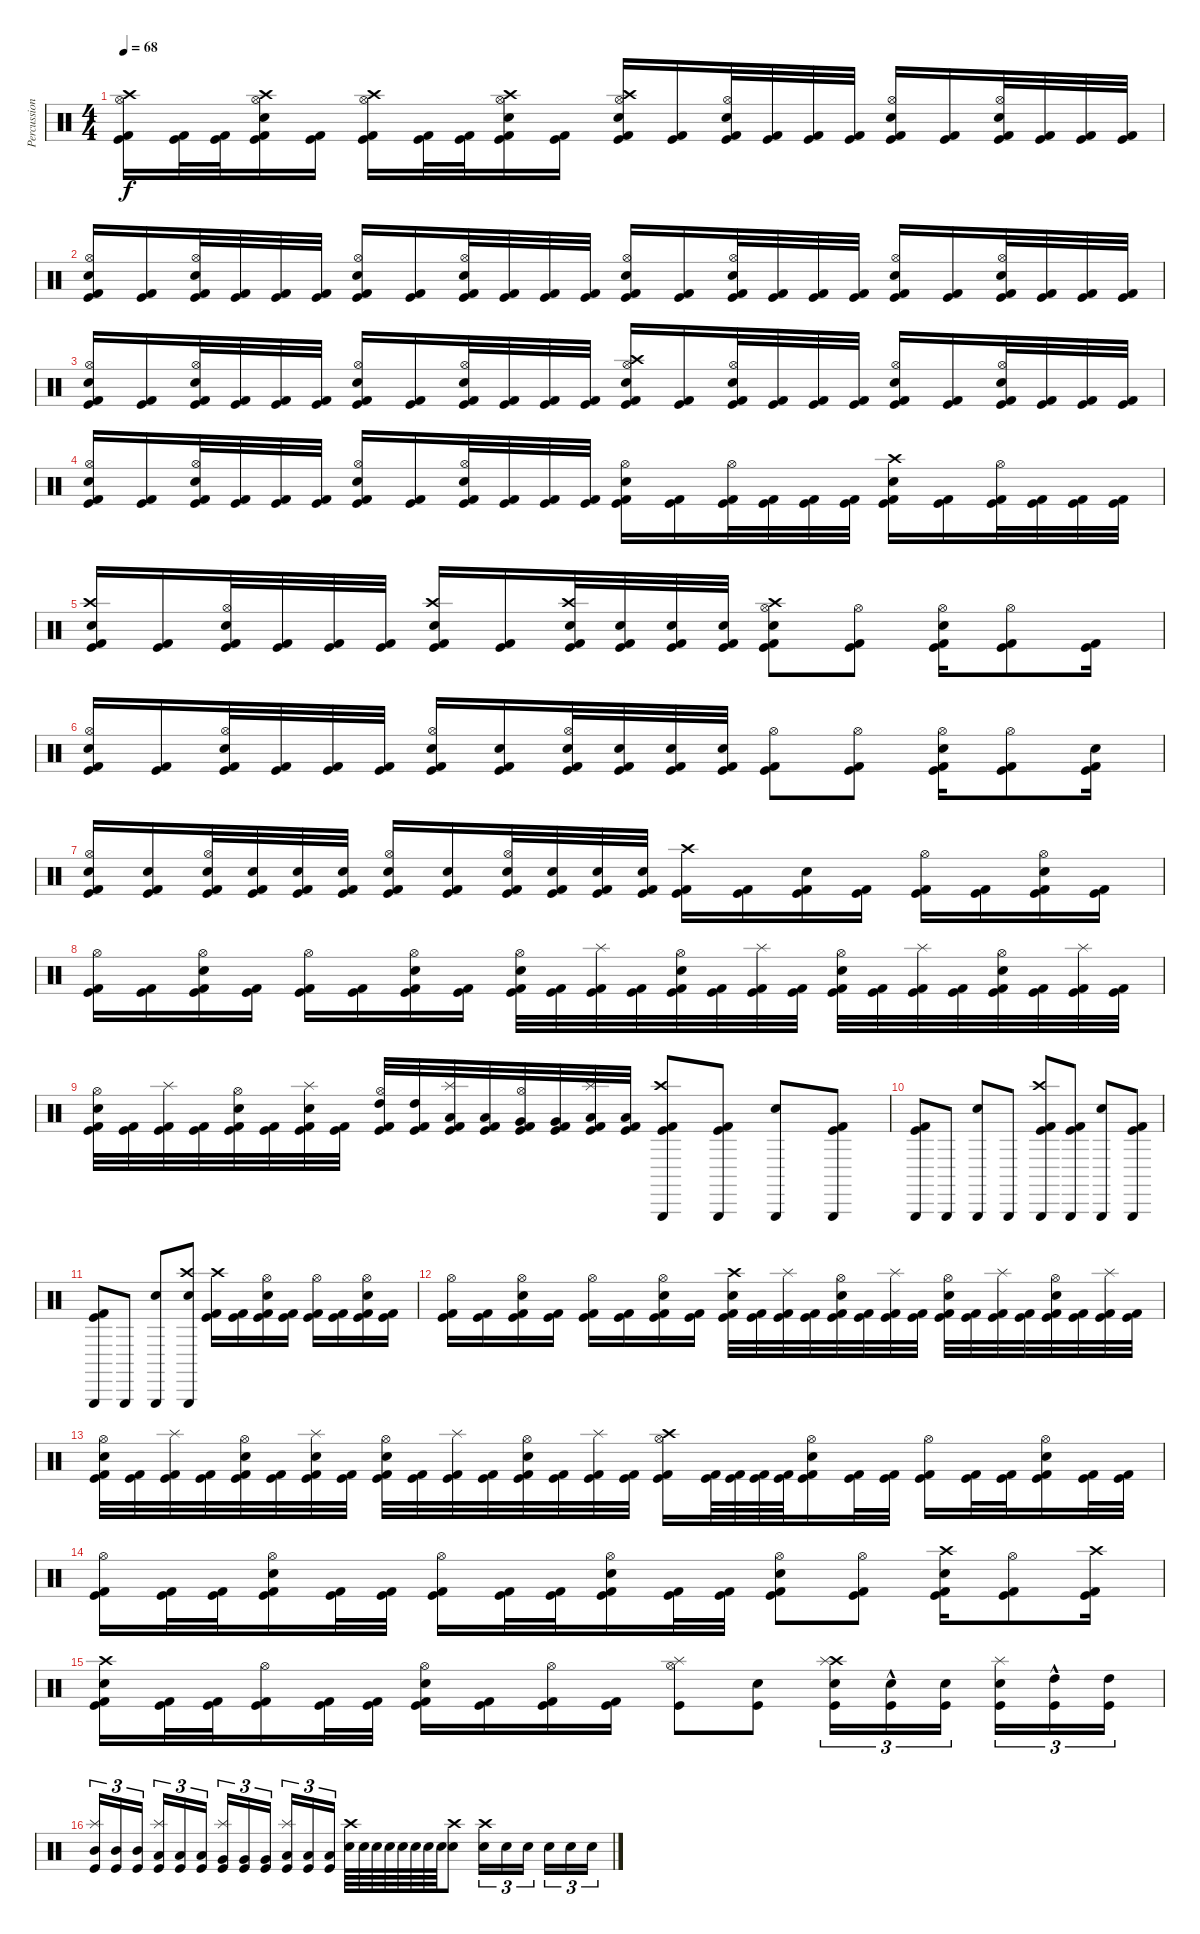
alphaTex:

\track ("Percussion" "Percussion") {instrument percussion}
\staff {score}
\articulation defaults
\ts (4 4)
\tempo 68
\clef neutral
\ks c
("Kick (hit)" "Kick (hit) 2" "Hi-Hat (open)" "Crash high (hit)").16{dy f} ("Kick (hit)" "Kick (hit) 2").32 ("Kick (hit)" "Kick (hit) 2").32 ("Kick (hit)" "Kick (hit) 2" "Snare (hit) 2" "Hi-Hat (open)" "Crash high (hit)").16 ("Kick (hit)" "Kick (hit) 2").16 ("Kick (hit)" "Kick (hit) 2" "Hi-Hat (open)" "Crash high (hit)").16 ("Kick (hit)" "Kick (hit) 2").32 ("Kick (hit)" "Kick (hit) 2").32 ("Kick (hit)" "Kick (hit) 2" "Snare (hit) 2" "Hi-Hat (open)" "Crash high (hit)").16 ("Kick (hit)" "Kick (hit) 2").16 ("Kick (hit)" "Kick (hit) 2" "Snare (hit) 2" "Hi-Hat (open)" "Crash high (hit)").16 ("Kick (hit)" "Kick (hit) 2").16 ("Kick (hit)" "Kick (hit) 2" "Snare (hit) 2" "Hi-Hat (open)").32 ("Kick (hit)" "Kick (hit) 2").32 ("Kick (hit)" "Kick (hit) 2").32 ("Kick (hit)" "Kick (hit) 2").32 ("Kick (hit)" "Kick (hit) 2" "Snare (hit) 2" "Hi-Hat (open)").16 ("Kick (hit)" "Kick (hit) 2").16 ("Kick (hit)" "Kick (hit) 2" "Snare (hit) 2" "Hi-Hat (open)").32 ("Kick (hit)" "Kick (hit) 2").32 ("Kick (hit)" "Kick (hit) 2").32 ("Kick (hit)" "Kick (hit) 2").32 |
("Kick (hit)" "Kick (hit) 2" "Snare (hit) 2" "Hi-Hat (open)").16 ("Kick (hit)" "Kick (hit) 2").16 ("Kick (hit)" "Kick (hit) 2" "Snare (hit) 2" "Hi-Hat (open)").32 ("Kick (hit)" "Kick (hit) 2").32 ("Kick (hit)" "Kick (hit) 2").32 ("Kick (hit)" "Kick (hit) 2").32 ("Kick (hit)" "Kick (hit) 2" "Snare (hit) 2" "Hi-Hat (open)").16 ("Kick (hit)" "Kick (hit) 2").16 ("Kick (hit)" "Kick (hit) 2" "Snare (hit) 2" "Hi-Hat (open)").32 ("Kick (hit)" "Kick (hit) 2").32 ("Kick (hit)" "Kick (hit) 2").32 ("Kick (hit)" "Kick (hit) 2").32 ("Kick (hit)" "Kick (hit) 2" "Snare (hit) 2" "Hi-Hat (open)").16 ("Kick (hit)" "Kick (hit) 2").16 ("Kick (hit)" "Kick (hit) 2" "Snare (hit) 2" "Hi-Hat (open)").32 ("Kick (hit)" "Kick (hit) 2").32 ("Kick (hit)" "Kick (hit) 2").32 ("Kick (hit)" "Kick (hit) 2").32 ("Kick (hit)" "Kick (hit) 2" "Snare (hit) 2" "Hi-Hat (open)").16 ("Kick (hit)" "Kick (hit) 2").16 ("Kick (hit)" "Kick (hit) 2" "Snare (hit) 2" "Hi-Hat (open)").32 ("Kick (hit)" "Kick (hit) 2").32 ("Kick (hit)" "Kick (hit) 2").32 ("Kick (hit)" "Kick (hit) 2").32 |
("Kick (hit)" "Kick (hit) 2" "Snare (hit) 2" "Hi-Hat (open)").16 ("Kick (hit)" "Kick (hit) 2").16 ("Kick (hit)" "Kick (hit) 2" "Snare (hit) 2" "Hi-Hat (open)").32 ("Kick (hit)" "Kick (hit) 2").32 ("Kick (hit)" "Kick (hit) 2").32 ("Kick (hit)" "Kick (hit) 2").32 ("Kick (hit)" "Kick (hit) 2" "Snare (hit) 2" "Hi-Hat (open)").16 ("Kick (hit)" "Kick (hit) 2").16 ("Kick (hit)" "Kick (hit) 2" "Snare (hit) 2" "Hi-Hat (open)").32 ("Kick (hit)" "Kick (hit) 2").32 ("Kick (hit)" "Kick (hit) 2").32 ("Kick (hit)" "Kick (hit) 2").32 ("Kick (hit)" "Kick (hit) 2" "Snare (hit) 2" "Hi-Hat (open)" "Crash high (hit)").16 ("Kick (hit)" "Kick (hit) 2").16 ("Kick (hit)" "Kick (hit) 2" "Snare (hit) 2" "Hi-Hat (open)").32 ("Kick (hit)" "Kick (hit) 2").32 ("Kick (hit)" "Kick (hit) 2").32 ("Kick (hit)" "Kick (hit) 2").32 ("Kick (hit)" "Kick (hit) 2" "Snare (hit) 2" "Hi-Hat (open)").16 ("Kick (hit)" "Kick (hit) 2").16 ("Kick (hit)" "Kick (hit) 2" "Snare (hit) 2" "Hi-Hat (open)").32 ("Kick (hit)" "Kick (hit) 2").32 ("Kick (hit)" "Kick (hit) 2").32 ("Kick (hit)" "Kick (hit) 2").32 |
("Kick (hit)" "Kick (hit) 2" "Snare (hit) 2" "Hi-Hat (open)").16 ("Kick (hit)" "Kick (hit) 2").16 ("Kick (hit)" "Kick (hit) 2" "Snare (hit) 2" "Hi-Hat (open)").32 ("Kick (hit)" "Kick (hit) 2").32 ("Kick (hit)" "Kick (hit) 2").32 ("Kick (hit)" "Kick (hit) 2").32 ("Kick (hit)" "Kick (hit) 2" "Snare (hit) 2" "Hi-Hat (open)").16 ("Kick (hit)" "Kick (hit) 2").16 ("Kick (hit)" "Kick (hit) 2" "Snare (hit) 2" "Hi-Hat (open)").32 ("Kick (hit)" "Kick (hit) 2").32 ("Kick (hit)" "Kick (hit) 2").32 ("Kick (hit)" "Kick (hit) 2").32 ("Kick (hit)" "Kick (hit) 2" "Snare (hit) 2" "Hi-Hat (open)").16 ("Kick (hit)" "Kick (hit) 2").16 ("Kick (hit)" "Kick (hit) 2" "Hi-Hat (open)").32 ("Kick (hit)" "Kick (hit) 2").32 ("Kick (hit)" "Kick (hit) 2").32 ("Kick (hit)" "Kick (hit) 2").32 ("Kick (hit)" "Kick (hit) 2" "Snare (hit) 2" "Crash high (hit)").16 ("Kick (hit)" "Kick (hit) 2").16 ("Kick (hit)" "Kick (hit) 2" "Hi-Hat (open)").32 ("Kick (hit)" "Kick (hit) 2").32 ("Kick (hit)" "Kick (hit) 2").32 ("Kick (hit)" "Kick (hit) 2").32 |
\section ("" "")
("Kick (hit)" "Kick (hit) 2" "Snare (hit) 2" "Crash high (hit)").16 ("Kick (hit)" "Kick (hit) 2").16 ("Kick (hit)" "Kick (hit) 2" "Snare (hit) 2" "Hi-Hat (open)").32 ("Kick (hit)" "Kick (hit) 2").32 ("Kick (hit)" "Kick (hit) 2").32 ("Kick (hit)" "Kick (hit) 2").32 ("Kick (hit)" "Kick (hit) 2" "Snare (hit) 2" "Crash high (hit)").16 ("Kick (hit)" "Kick (hit) 2").16 ("Kick (hit)" "Kick (hit) 2" "Snare (hit) 2" "Crash high (hit)").32 ("Kick (hit)" "Kick (hit) 2" "Snare (hit) 2").32 ("Kick (hit)" "Kick (hit) 2" "Snare (hit) 2").32 ("Kick (hit)" "Kick (hit) 2" "Snare (hit) 2").32 ("Kick (hit)" "Kick (hit) 2" "Snare (hit) 2" "Hi-Hat (open)" "Crash high (hit)").8 ("Kick (hit)" "Kick (hit) 2" "Hi-Hat (open)").8 ("Kick (hit)" "Kick (hit) 2" "Snare (hit) 2" "Hi-Hat (open)").16 ("Kick (hit)" "Kick (hit) 2" "Hi-Hat (open)").8 ("Kick (hit)" "Kick (hit) 2").16 |
("Kick (hit)" "Kick (hit) 2" "Snare (hit) 2" "Hi-Hat (open)").16 ("Kick (hit)" "Kick (hit) 2").16 ("Kick (hit)" "Kick (hit) 2" "Snare (hit) 2" "Hi-Hat (open)").32 ("Kick (hit)" "Kick (hit) 2").32 ("Kick (hit)" "Kick (hit) 2").32 ("Kick (hit)" "Kick (hit) 2").32 ("Kick (hit)" "Kick (hit) 2" "Snare (hit) 2" "Hi-Hat (open)").16 ("Kick (hit)" "Kick (hit) 2" "Snare (hit) 2").16 ("Kick (hit)" "Kick (hit) 2" "Snare (hit) 2" "Hi-Hat (open)").32 ("Kick (hit)" "Kick (hit) 2" "Snare (hit) 2").32 ("Kick (hit)" "Kick (hit) 2" "Snare (hit) 2").32 ("Kick (hit)" "Kick (hit) 2" "Snare (hit) 2").32 ("Kick (hit)" "Kick (hit) 2" "Hi-Hat (open)").8 ("Kick (hit)" "Kick (hit) 2" "Hi-Hat (open)").8 ("Kick (hit)" "Kick (hit) 2" "Snare (hit) 2" "Hi-Hat (open)").16 ("Kick (hit)" "Kick (hit) 2" "Hi-Hat (open)").8 ("Kick (hit)" "Kick (hit) 2" "Snare (hit) 2").16 |
("Kick (hit)" "Kick (hit) 2" "Snare (hit) 2" "Hi-Hat (open)").16 ("Kick (hit)" "Kick (hit) 2" "Snare (hit) 2").16 ("Kick (hit)" "Kick (hit) 2" "Snare (hit) 2" "Hi-Hat (open)").32 ("Kick (hit)" "Kick (hit) 2" "Snare (hit) 2").32 ("Kick (hit)" "Kick (hit) 2" "Snare (hit) 2").32 ("Kick (hit)" "Kick (hit) 2" "Snare (hit) 2").32 ("Kick (hit)" "Kick (hit) 2" "Snare (hit) 2" "Hi-Hat (open)").16 ("Kick (hit)" "Kick (hit) 2" "Snare (hit) 2").16 ("Kick (hit)" "Kick (hit) 2" "Snare (hit) 2" "Hi-Hat (open)").32 ("Kick (hit)" "Kick (hit) 2" "Snare (hit) 2").32 ("Kick (hit)" "Kick (hit) 2" "Snare (hit) 2").32 ("Kick (hit)" "Kick (hit) 2" "Snare (hit) 2").32 ("Kick (hit)" "Kick (hit) 2" "Crash high (hit)").16 ("Kick (hit)" "Kick (hit) 2").16 ("Kick (hit)" "Kick (hit) 2" "Snare (hit) 2").16 ("Kick (hit)" "Kick (hit) 2").16 ("Kick (hit)" "Kick (hit) 2" "Hi-Hat (open)").16 ("Kick (hit)" "Kick (hit) 2").16 ("Kick (hit)" "Kick (hit) 2" "Snare (hit) 2" "Hi-Hat (open)").16 ("Kick (hit)" "Kick (hit) 2").16 |
("Kick (hit)" "Kick (hit) 2" "Hi-Hat (open)").16 ("Kick (hit)" "Kick (hit) 2").16 ("Kick (hit)" "Kick (hit) 2" "Snare (hit) 2" "Hi-Hat (open)").16 ("Kick (hit)" "Kick (hit) 2").16 ("Kick (hit)" "Kick (hit) 2" "Hi-Hat (open)").16 ("Kick (hit)" "Kick (hit) 2").16 ("Kick (hit)" "Kick (hit) 2" "Snare (hit) 2" "Hi-Hat (open)").16 ("Kick (hit)" "Kick (hit) 2").16 ("Kick (hit)" "Kick (hit) 2" "Snare (hit) 2" "Hi-Hat (open)").32 ("Kick (hit)" "Kick (hit) 2").32 ("Kick (hit)" "Kick (hit) 2" "Splash (hit)").32 ("Kick (hit)" "Kick (hit) 2").32 ("Kick (hit)" "Kick (hit) 2" "Snare (hit) 2" "Hi-Hat (open)").32 ("Kick (hit)" "Kick (hit) 2").32 ("Kick (hit)" "Kick (hit) 2" "Splash (hit)").32 ("Kick (hit)" "Kick (hit) 2").32 ("Kick (hit)" "Kick (hit) 2" "Snare (hit) 2" "Hi-Hat (open)").32 ("Kick (hit)" "Kick (hit) 2").32 ("Kick (hit)" "Kick (hit) 2" "Splash (hit)").32 ("Kick (hit)" "Kick (hit) 2").32 ("Kick (hit)" "Kick (hit) 2" "Snare (hit) 2" "Hi-Hat (open)").32 ("Kick (hit)" "Kick (hit) 2").32 ("Kick (hit)" "Kick (hit) 2" "Splash (hit)").32 ("Kick (hit)" "Kick (hit) 2").32 |
("Kick (hit)" "Kick (hit) 2" "Snare (hit) 2" "Hi-Hat (open)").32 ("Kick (hit)" "Kick (hit) 2").32 ("Kick (hit)" "Kick (hit) 2" "Splash (hit)").32 ("Kick (hit)" "Kick (hit) 2").32 ("Kick (hit)" "Kick (hit) 2" "Snare (hit) 2" "Hi-Hat (open)").32 ("Kick (hit)" "Kick (hit) 2").32 ("Kick (hit)" "Kick (hit) 2" "Snare (hit) 2" "Splash (hit)").32 ("Kick (hit)" "Kick (hit) 2").32 ("Kick (hit)" "Kick (hit) 2" "Hi-Hat (open)" "High Tom (hit)").32 ("Kick (hit)" "Kick (hit) 2" "High Tom (hit)").32 ("Kick (hit)" "Kick (hit) 2" "Low Tom (hit)" "Splash (hit)").32 ("Kick (hit)" "Kick (hit) 2" "Low Tom (hit)").32 ("Kick (hit)" "Kick (hit) 2" "Very Low Tom (hit)" "Hi-Hat (open)").32 ("Kick (hit)" "Kick (hit) 2" "Very Low Tom (hit)").32 ("Kick (hit)" "Kick (hit) 2" "Low Floor Tom (hit)" "Splash (hit)").32 ("Kick (hit)" "Kick (hit) 2" "Low Floor Tom (hit)").32 ("Kick (hit)" "Kick (hit) 2" "Crash high (hit)" "Triangle (hit)").8 ("Kick (hit)" "Kick (hit) 2" "Triangle (hit)").8 ("Snare (hit) 2" "Triangle (hit)").8 ("Kick (hit)" "Kick (hit) 2" "Triangle (hit)").8 |
\section ("" "")
("Kick (hit)" "Kick (hit) 2" "Triangle (hit)").8 "Triangle (hit)".8 ("Snare (hit) 2" "Triangle (hit)").8 "Triangle (hit)".8 ("Kick (hit)" "Kick (hit) 2" "Crash high (hit)" "Triangle (hit)").8 ("Kick (hit)" "Kick (hit) 2" "Triangle (hit)").8 ("Snare (hit) 2" "Triangle (hit)").8 ("Kick (hit)" "Kick (hit) 2" "Triangle (hit)").8 |
("Kick (hit)" "Kick (hit) 2" "Triangle (hit)").8 "Triangle (hit)".8 ("Snare (hit) 2" "Triangle (hit)").8 ("Snare (hit) 2" "Crash high (hit)" "Triangle (hit)").8 ("Kick (hit)" "Kick (hit) 2" "Crash high (hit)").16 ("Kick (hit)" "Kick (hit) 2").16 ("Kick (hit)" "Kick (hit) 2" "Snare (hit) 2" "Hi-Hat (open)").16 ("Kick (hit)" "Kick (hit) 2").16 ("Kick (hit)" "Kick (hit) 2" "Hi-Hat (open)").16 ("Kick (hit)" "Kick (hit) 2").16 ("Kick (hit)" "Kick (hit) 2" "Snare (hit) 2" "Hi-Hat (open)").16 ("Kick (hit)" "Kick (hit) 2").16 |
("Kick (hit)" "Kick (hit) 2" "Hi-Hat (open)").16 ("Kick (hit)" "Kick (hit) 2").16 ("Kick (hit)" "Kick (hit) 2" "Snare (hit) 2" "Hi-Hat (open)").16 ("Kick (hit)" "Kick (hit) 2").16 ("Kick (hit)" "Kick (hit) 2" "Hi-Hat (open)").16 ("Kick (hit)" "Kick (hit) 2").16 ("Kick (hit)" "Kick (hit) 2" "Snare (hit) 2" "Hi-Hat (open)").16 ("Kick (hit)" "Kick (hit) 2").16 ("Kick (hit)" "Kick (hit) 2" "Snare (hit) 2" "Crash high (hit)").32 ("Kick (hit)" "Kick (hit) 2").32 ("Kick (hit)" "Kick (hit) 2" "Splash (hit)").32 ("Kick (hit)" "Kick (hit) 2").32 ("Kick (hit)" "Kick (hit) 2" "Snare (hit) 2" "Hi-Hat (open)").32 ("Kick (hit)" "Kick (hit) 2").32 ("Kick (hit)" "Kick (hit) 2" "Splash (hit)").32 ("Kick (hit)" "Kick (hit) 2").32 ("Kick (hit)" "Kick (hit) 2" "Snare (hit) 2" "Hi-Hat (open)").32 ("Kick (hit)" "Kick (hit) 2").32 ("Kick (hit)" "Kick (hit) 2" "Splash (hit)").32 ("Kick (hit)" "Kick (hit) 2").32 ("Kick (hit)" "Kick (hit) 2" "Snare (hit) 2" "Hi-Hat (open)").32 ("Kick (hit)" "Kick (hit) 2").32 ("Kick (hit)" "Kick (hit) 2" "Splash (hit)").32 ("Kick (hit)" "Kick (hit) 2").32 |
("Kick (hit)" "Kick (hit) 2" "Snare (hit) 2" "Hi-Hat (open)").32 ("Kick (hit)" "Kick (hit) 2").32 ("Kick (hit)" "Kick (hit) 2" "Splash (hit)").32 ("Kick (hit)" "Kick (hit) 2").32 ("Kick (hit)" "Kick (hit) 2" "Snare (hit) 2" "Hi-Hat (open)").32 ("Kick (hit)" "Kick (hit) 2").32 ("Kick (hit)" "Kick (hit) 2" "Snare (hit) 2" "Splash (hit)").32 ("Kick (hit)" "Kick (hit) 2").32 ("Kick (hit)" "Kick (hit) 2" "Snare (hit) 2" "Hi-Hat (open)").32 ("Kick (hit)" "Kick (hit) 2").32 ("Kick (hit)" "Kick (hit) 2" "Splash (hit)").32 ("Kick (hit)" "Kick (hit) 2").32 ("Kick (hit)" "Kick (hit) 2" "Snare (hit) 2" "Hi-Hat (open)").32 ("Kick (hit)" "Kick (hit) 2").32 ("Kick (hit)" "Kick (hit) 2" "Splash (hit)").32 ("Kick (hit)" "Kick (hit) 2").32 ("Kick (hit)" "Kick (hit) 2" "Hi-Hat (open)" "Crash high (hit)").16 ("Kick (hit)" "Kick (hit) 2").64 ("Kick (hit)" "Kick (hit) 2").64 ("Kick (hit)" "Kick (hit) 2").64 ("Kick (hit)" "Kick (hit) 2").64 ("Kick (hit)" "Kick (hit) 2" "Snare (hit) 2" "Hi-Hat (open)").16 ("Kick (hit)" "Kick (hit) 2").32 ("Kick (hit)" "Kick (hit) 2").32 ("Kick (hit)" "Kick (hit) 2" "Hi-Hat (open)").16 ("Kick (hit)" "Kick (hit) 2").32 ("Kick (hit)" "Kick (hit) 2").32 ("Kick (hit)" "Kick (hit) 2" "Snare (hit) 2" "Hi-Hat (open)").16 ("Kick (hit)" "Kick (hit) 2").32 ("Kick (hit)" "Kick (hit) 2").32 |
("Kick (hit)" "Kick (hit) 2" "Hi-Hat (open)").16 ("Kick (hit)" "Kick (hit) 2").32 ("Kick (hit)" "Kick (hit) 2").32 ("Kick (hit)" "Kick (hit) 2" "Snare (hit) 2" "Hi-Hat (open)").16 ("Kick (hit)" "Kick (hit) 2").32 ("Kick (hit)" "Kick (hit) 2").32 ("Kick (hit)" "Kick (hit) 2" "Hi-Hat (open)").16 ("Kick (hit)" "Kick (hit) 2").32 ("Kick (hit)" "Kick (hit) 2").32 ("Kick (hit)" "Kick (hit) 2" "Snare (hit) 2" "Hi-Hat (open)").16 ("Kick (hit)" "Kick (hit) 2").32 ("Kick (hit)" "Kick (hit) 2").32 ("Kick (hit)" "Kick (hit) 2" "Snare (hit) 2" "Hi-Hat (open)").8 ("Kick (hit)" "Kick (hit) 2" "Hi-Hat (open)").8 ("Kick (hit)" "Kick (hit) 2" "Snare (hit) 2" "Crash high (hit)").16 ("Kick (hit)" "Kick (hit) 2" "Hi-Hat (open)").8 ("Kick (hit)" "Kick (hit) 2" "Crash high (hit)").16 |
("Kick (hit)" "Kick (hit) 2" "Snare (hit) 2" "Crash high (hit)").16 ("Kick (hit)" "Kick (hit) 2").32 ("Kick (hit)" "Kick (hit) 2").32 ("Kick (hit)" "Kick (hit) 2" "Hi-Hat (open)").16 ("Kick (hit)" "Kick (hit) 2").32 ("Kick (hit)" "Kick (hit) 2").32 ("Kick (hit)" "Kick (hit) 2" "Snare (hit) 2" "Hi-Hat (open)").16 ("Kick (hit)" "Kick (hit) 2").16 ("Kick (hit)" "Kick (hit) 2" "Hi-Hat (open)").16 ("Kick (hit)" "Kick (hit) 2").16 ("Kick (hit)" "Hi-Hat (open)" "Splash (hit)").8 ("Kick (hit)" "Snare (hit) 2").8 ("Kick (hit)" "Snare (hit) 2" "Crash high (hit)" "Splash (hit)").16{tu (3 2)} ("Kick (hit)"{hac} "Snare (hit) 2"{hac}).16{tu (3 2)} ("Kick (hit)" "Snare (hit) 2").16{tu (3 2)} ("Kick (hit)" "Snare (hit) 2" "Splash (hit)").16{tu (3 2)} ("Kick (hit)"{hac} "High Tom (hit)"{hac}).16{tu (3 2)} ("Kick (hit)" "High Tom (hit)").16{tu (3 2)} |
("Kick (hit)" "Mid Tom (hit)" "Splash (hit)").16{tu (3 2)} ("Kick (hit)" "Mid Tom (hit)").16{tu (3 2)} ("Kick (hit)" "Mid Tom (hit)").16{tu (3 2)} ("Kick (hit)" "Low Tom (hit)" "Splash (hit)").16{tu (3 2)} ("Kick (hit)" "Low Tom (hit)").16{tu (3 2)} ("Kick (hit)" "Low Tom (hit)").16{tu (3 2)} ("Kick (hit)" "Very Low Tom (hit)" "Splash (hit)").16{tu (3 2)} ("Kick (hit)" "Very Low Tom (hit)").16{tu (3 2)} ("Kick (hit)" "Very Low Tom (hit)").16{tu (3 2)} ("Kick (hit)" "Low Floor Tom (hit)" "Splash (hit)").16{tu (3 2)} ("Kick (hit)" "Low Floor Tom (hit)").16{tu (3 2)} ("Kick (hit)" "Low Floor Tom (hit)").16{tu (3 2)} ("Snare (hit) 2" "Crash high (hit)").64 "Snare (hit) 2".64 "Snare (hit) 2".64 "Snare (hit) 2".64 "Snare (hit) 2".64 "Snare (hit) 2".64 "Snare (hit) 2".64 "Snare (hit) 2".64 ("Snare (hit) 2" "Crash high (hit)").8 ("Snare (hit) 2" "Crash high (hit)").16{tu (3 2)} "Snare (hit) 2".16{tu (3 2)} "Snare (hit) 2".16{tu (3 2)} "Snare (hit) 2".16{tu (3 2)} "Snare (hit) 2".16{tu (3 2)} "Snare (hit) 2".16{tu (3 2)}
